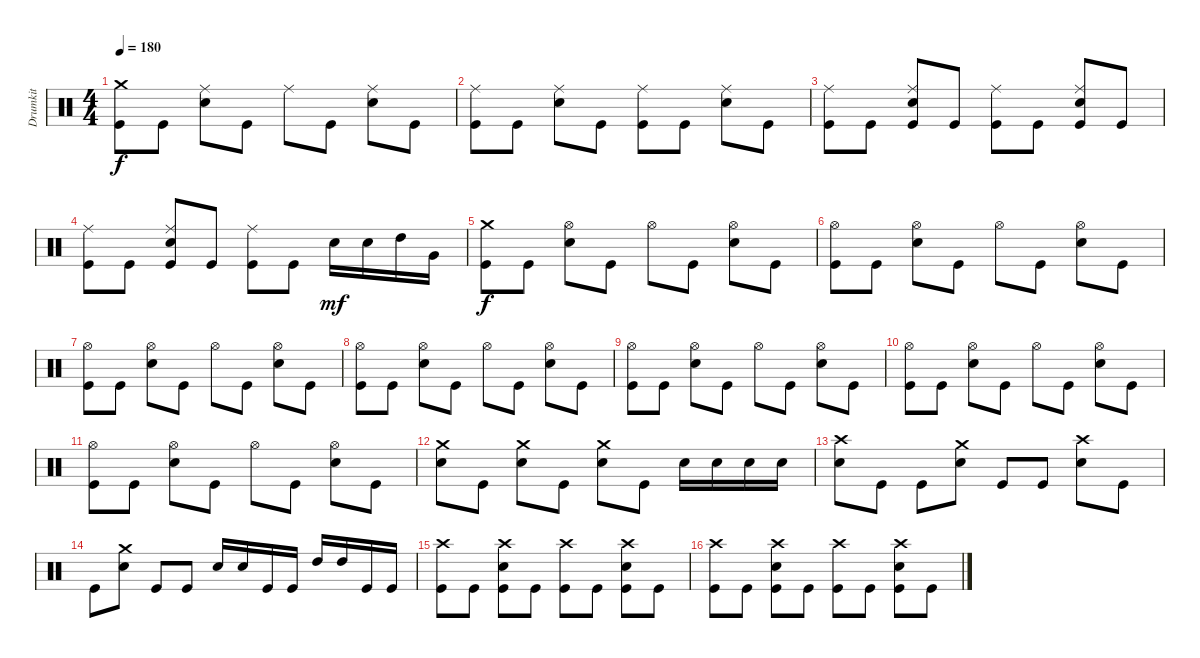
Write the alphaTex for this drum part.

\track ("Drumkit" "Drumkit") {instrument percussion}
\staff {score}
\articulation defaults
\ts (4 4)
\tempo 180
\clef neutral
\ks c
("Crash medium (hit)" "Kick (hit)").8{dy f} "Kick (hit)".8 ("Ride (middle)" "Snare (hit) 2").8 "Kick (hit)".8 "Ride (middle)".8 "Kick (hit)".8 ("Ride (middle)" "Snare (hit) 2").8 "Kick (hit)".8 |
("Ride (middle)" "Kick (hit)").8 "Kick (hit)".8 ("Ride (middle)" "Snare (hit) 2").8 "Kick (hit)".8 ("Ride (middle)" "Kick (hit)").8 "Kick (hit)".8 ("Ride (middle)" "Snare (hit) 2").8 "Kick (hit)".8 |
("Ride (middle)" "Kick (hit)").8 "Kick (hit)".8 ("Ride (middle)" "Snare (hit) 2" "Kick (hit)").8 "Kick (hit)".8 ("Ride (middle)" "Kick (hit)").8 "Kick (hit)".8 ("Ride (middle)" "Snare (hit) 2" "Kick (hit)").8 "Kick (hit)".8 |
("Ride (middle)" "Kick (hit)").8 "Kick (hit)".8 ("Ride (middle)" "Snare (hit) 2" "Kick (hit)").8 "Kick (hit)".8 ("Ride (middle)" "Kick (hit)").8 "Kick (hit)".8 "Snare (hit) 2".16{dy mf} "Snare (hit) 2".16 "High Tom (hit)".16 "Very Low Tom (hit)".16 |
("Crash medium (hit)" "Kick (hit)").8{dy f} "Kick (hit)".8 ("Hi-Hat (open)" "Snare (hit) 2").8 "Kick (hit)".8 "Hi-Hat (open)".8 "Kick (hit)".8 ("Hi-Hat (open)" "Snare (hit) 2").8 "Kick (hit)".8 |
("Hi-Hat (open)" "Kick (hit)").8 "Kick (hit)".8 ("Hi-Hat (open)" "Snare (hit) 2").8 "Kick (hit)".8 "Hi-Hat (open)".8 "Kick (hit)".8 ("Hi-Hat (open)" "Snare (hit) 2").8 "Kick (hit)".8 |
("Hi-Hat (open)" "Kick (hit)").8 "Kick (hit)".8 ("Hi-Hat (open)" "Snare (hit) 2").8 "Kick (hit)".8 "Hi-Hat (open)".8 "Kick (hit)".8 ("Hi-Hat (open)" "Snare (hit) 2").8 "Kick (hit)".8 |
("Hi-Hat (open)" "Kick (hit)").8 "Kick (hit)".8 ("Hi-Hat (open)" "Snare (hit) 2").8 "Kick (hit)".8 "Hi-Hat (open)".8 "Kick (hit)".8 ("Hi-Hat (open)" "Snare (hit) 2").8 "Kick (hit)".8 |
("Hi-Hat (open)" "Kick (hit)").8 "Kick (hit)".8 ("Hi-Hat (open)" "Snare (hit) 2").8 "Kick (hit)".8 "Hi-Hat (open)".8 "Kick (hit)".8 ("Hi-Hat (open)" "Snare (hit) 2").8 "Kick (hit)".8 |
("Hi-Hat (open)" "Kick (hit)").8 "Kick (hit)".8 ("Hi-Hat (open)" "Snare (hit) 2").8 "Kick (hit)".8 "Hi-Hat (open)".8 "Kick (hit)".8 ("Hi-Hat (open)" "Snare (hit) 2").8 "Kick (hit)".8 |
("Hi-Hat (open)" "Kick (hit)").8 "Kick (hit)".8 ("Hi-Hat (open)" "Snare (hit) 2").8 "Kick (hit)".8 "Hi-Hat (open)".8 "Kick (hit)".8 ("Hi-Hat (open)" "Snare (hit) 2").8 "Kick (hit)".8 |
("Crash medium (hit)" "Snare (hit) 2").8 "Kick (hit)".8 ("Crash medium (hit)" "Snare (hit) 2").8 "Kick (hit)".8 ("Crash medium (hit)" "Snare (hit) 2").8 "Kick (hit)".8 "Snare (hit) 2".16 "Snare (hit) 2".16 "Snare (hit) 2".16 "Snare (hit) 2".16 |
("Crash high (hit)" "Snare (hit) 2").8 "Kick (hit)".8 "Kick (hit)".8 ("Crash medium (hit)" "Snare (hit) 2").8 "Kick (hit)".8 "Kick (hit)".8 ("Crash high (hit)" "Snare (hit) 2").8 "Kick (hit)".8 |
"Kick (hit)".8 ("Crash medium (hit)" "Snare (hit) 2").8 "Kick (hit)".8 "Kick (hit)".8 "Snare (hit) 2".16 "Snare (hit) 2".16 "Kick (hit)".16 "Kick (hit)".16 "High Tom (hit)".16 "High Tom (hit)".16 "Kick (hit)".16 "Kick (hit)".16 |
("Crash high (hit)" "Kick (hit)").8 "Kick (hit)".8 ("Crash high (hit)" "Snare (hit) 2" "Kick (hit)").8 "Kick (hit)".8 ("Crash high (hit)" "Kick (hit)").8 "Kick (hit)".8 ("Crash high (hit)" "Snare (hit) 2" "Kick (hit)").8 "Kick (hit)".8 |
("Crash high (hit)" "Kick (hit)").8 "Kick (hit)".8 ("Crash high (hit)" "Snare (hit) 2" "Kick (hit)").8 "Kick (hit)".8 ("Crash high (hit)" "Kick (hit)").8 "Kick (hit)".8 ("Crash high (hit)" "Snare (hit) 2" "Kick (hit)").8 "Kick (hit)".8
